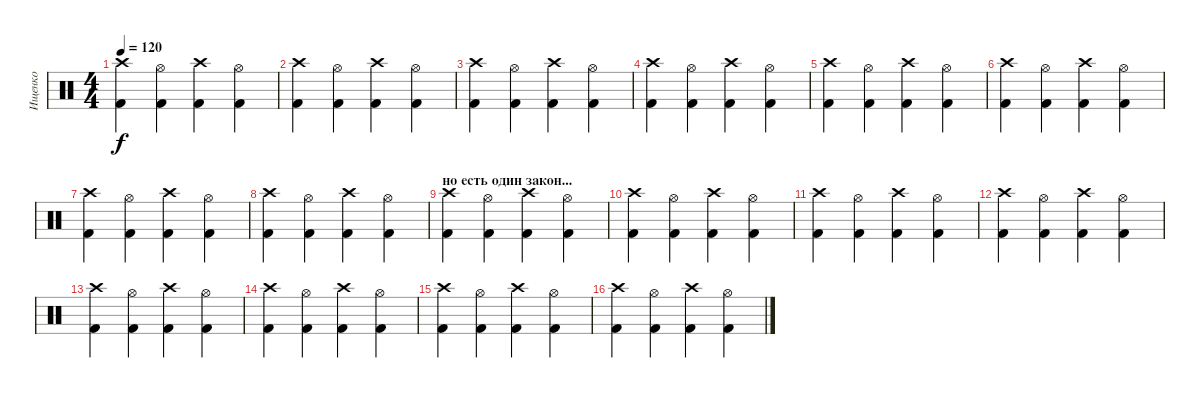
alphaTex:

\track ("Ищенко" "Ищенко") {instrument percussion}
\staff {score}
\articulation defaults
\ts (4 4)
\tempo 120
\clef neutral
\ks c
("Kick (hit) 2" "Crash high (hit)").4{dy f} ("Kick (hit) 2" "Hi-Hat (open)").4 ("Kick (hit) 2" "Crash high (hit)").4 ("Kick (hit) 2" "Hi-Hat (open)").4 |
("Kick (hit) 2" "Crash high (hit)").4 ("Kick (hit) 2" "Hi-Hat (open)").4 ("Kick (hit) 2" "Crash high (hit)").4 ("Kick (hit) 2" "Hi-Hat (open)").4 |
("Kick (hit) 2" "Crash high (hit)").4 ("Kick (hit) 2" "Hi-Hat (open)").4 ("Kick (hit) 2" "Crash high (hit)").4 ("Kick (hit) 2" "Hi-Hat (open)").4 |
("Kick (hit) 2" "Crash high (hit)").4 ("Kick (hit) 2" "Hi-Hat (open)").4 ("Kick (hit) 2" "Crash high (hit)").4 ("Kick (hit) 2" "Hi-Hat (open)").4 |
("Kick (hit) 2" "Crash high (hit)").4 ("Kick (hit) 2" "Hi-Hat (open)").4 ("Kick (hit) 2" "Crash high (hit)").4 ("Kick (hit) 2" "Hi-Hat (open)").4 |
("Kick (hit) 2" "Crash high (hit)").4 ("Kick (hit) 2" "Hi-Hat (open)").4 ("Kick (hit) 2" "Crash high (hit)").4 ("Kick (hit) 2" "Hi-Hat (open)").4 |
("Kick (hit) 2" "Crash high (hit)").4 ("Kick (hit) 2" "Hi-Hat (open)").4 ("Kick (hit) 2" "Crash high (hit)").4 ("Kick (hit) 2" "Hi-Hat (open)").4 |
("Kick (hit) 2" "Crash high (hit)").4 ("Kick (hit) 2" "Hi-Hat (open)").4 ("Kick (hit) 2" "Crash high (hit)").4 ("Kick (hit) 2" "Hi-Hat (open)").4 |
\section ("" "но есть один закон...")
("Kick (hit) 2" "Crash high (hit)").4 ("Kick (hit) 2" "Hi-Hat (open)").4 ("Kick (hit) 2" "Crash high (hit)").4 ("Kick (hit) 2" "Hi-Hat (open)").4 |
("Kick (hit) 2" "Crash high (hit)").4 ("Kick (hit) 2" "Hi-Hat (open)").4 ("Kick (hit) 2" "Crash high (hit)").4 ("Kick (hit) 2" "Hi-Hat (open)").4 |
("Kick (hit) 2" "Crash high (hit)").4 ("Kick (hit) 2" "Hi-Hat (open)").4 ("Kick (hit) 2" "Crash high (hit)").4 ("Kick (hit) 2" "Hi-Hat (open)").4 |
("Kick (hit) 2" "Crash high (hit)").4 ("Kick (hit) 2" "Hi-Hat (open)").4 ("Kick (hit) 2" "Crash high (hit)").4 ("Kick (hit) 2" "Hi-Hat (open)").4 |
("Kick (hit) 2" "Crash high (hit)").4 ("Kick (hit) 2" "Hi-Hat (open)").4 ("Kick (hit) 2" "Crash high (hit)").4 ("Kick (hit) 2" "Hi-Hat (open)").4 |
("Kick (hit) 2" "Crash high (hit)").4 ("Kick (hit) 2" "Hi-Hat (open)").4 ("Kick (hit) 2" "Crash high (hit)").4 ("Kick (hit) 2" "Hi-Hat (open)").4 |
("Kick (hit) 2" "Crash high (hit)").4 ("Kick (hit) 2" "Hi-Hat (open)").4 ("Kick (hit) 2" "Crash high (hit)").4 ("Kick (hit) 2" "Hi-Hat (open)").4 |
("Kick (hit) 2" "Crash high (hit)").4 ("Kick (hit) 2" "Hi-Hat (open)").4 ("Kick (hit) 2" "Crash high (hit)").4 ("Kick (hit) 2" "Hi-Hat (open)").4
